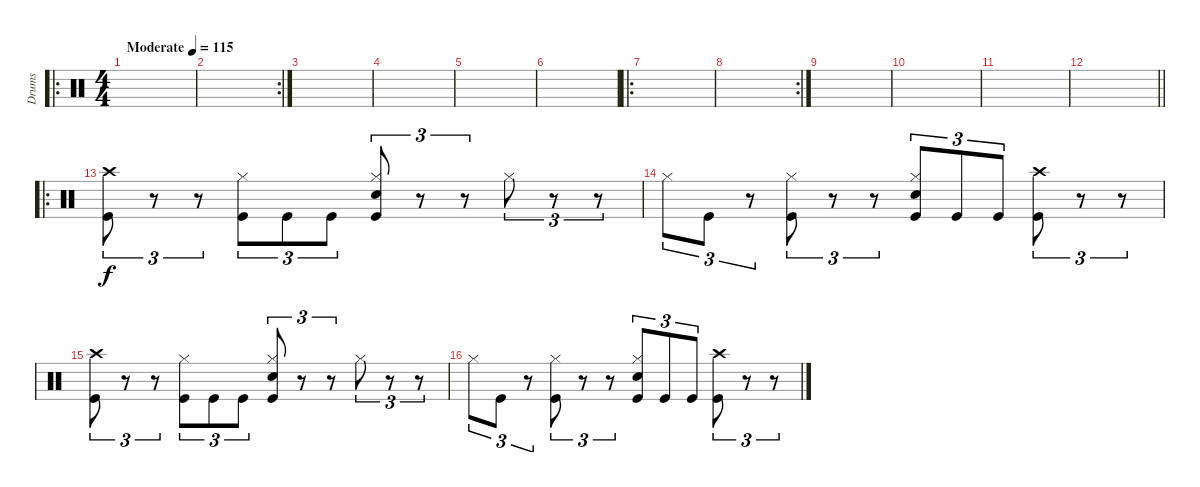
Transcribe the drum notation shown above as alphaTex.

\track ("Drums" "Drums") {instrument percussion}
\staff {score}
\articulation defaults
\ro
\ts (4 4)
\tempo (115 "Moderate")
\clef neutral
\ks c
|
\rc 2
|
|
|
|
|
\ro
|
\rc 2
|
|
|
|
\barLineRight lightlight
|
\ro
("Crash high (hit)" "Kick (hit)").8{tu (3 2)} r.8{tu (3 2)} r.8{tu (3 2)} ("Hi-Hat (closed)" "Kick (hit)").8{tu (3 2)} "Kick (hit)".8{tu (3 2)} "Kick (hit)".8{tu (3 2)} ("Hi-Hat (closed)" "Snare (hit) 2" "Kick (hit)").8{tu (3 2)} r.8{tu (3 2)} r.8{tu (3 2)} "Hi-Hat (closed)".8{tu (3 2)} r.8{tu (3 2)} r.8{tu (3 2)} |
"Hi-Hat (closed)".8{tu (3 2)} "Kick (hit)".8{tu (3 2)} r.8{tu (3 2)} ("Hi-Hat (closed)" "Kick (hit)").8{tu (3 2)} r.8{tu (3 2)} r.8{tu (3 2)} ("Hi-Hat (closed)" "Snare (hit) 2" "Kick (hit)").8{tu (3 2)} "Kick (hit)".8{tu (3 2)} "Kick (hit)".8{tu (3 2)} ("Crash high (hit)" "Kick (hit)").8{tu (3 2)} r.8{tu (3 2)} r.8{tu (3 2)} |
("Crash high (hit)" "Kick (hit)").8{tu (3 2)} r.8{tu (3 2)} r.8{tu (3 2)} ("Hi-Hat (closed)" "Kick (hit)").8{tu (3 2)} "Kick (hit)".8{tu (3 2)} "Kick (hit)".8{tu (3 2)} ("Hi-Hat (closed)" "Snare (hit) 2" "Kick (hit)").8{tu (3 2)} r.8{tu (3 2)} r.8{tu (3 2)} "Hi-Hat (closed)".8{tu (3 2)} r.8{tu (3 2)} r.8{tu (3 2)} |
"Hi-Hat (closed)".8{tu (3 2)} "Kick (hit)".8{tu (3 2)} r.8{tu (3 2)} ("Hi-Hat (closed)" "Kick (hit)").8{tu (3 2)} r.8{tu (3 2)} r.8{tu (3 2)} ("Hi-Hat (closed)" "Snare (hit) 2" "Kick (hit)").8{tu (3 2)} "Kick (hit)".8{tu (3 2)} "Kick (hit)".8{tu (3 2)} ("Crash high (hit)" "Kick (hit)").8{tu (3 2)} r.8{tu (3 2)} r.8{tu (3 2)}
